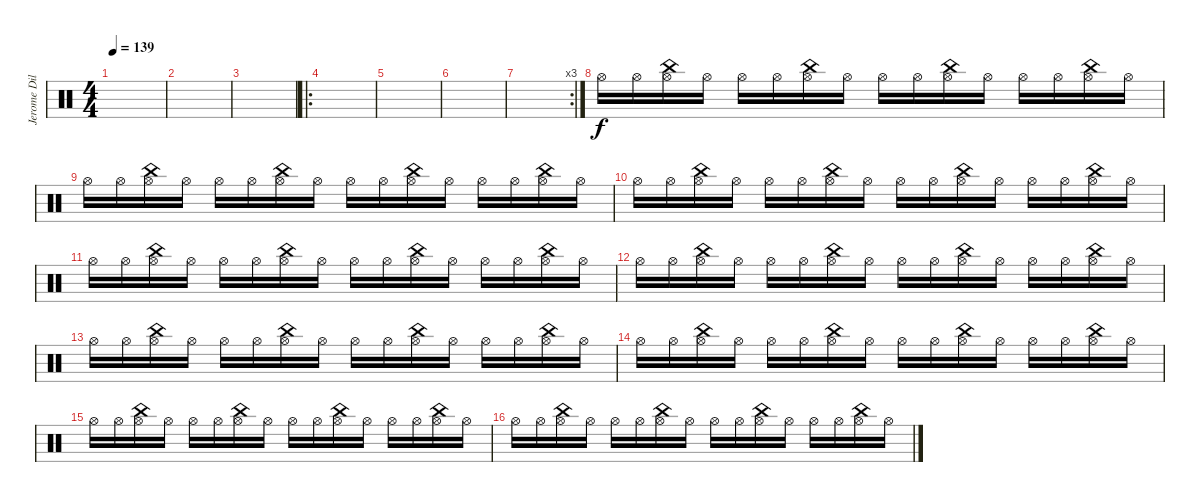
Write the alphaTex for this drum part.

\track ("Jerome Dillon - Batería 2" "Jerome Dil") {instrument percussion}
\staff {score}
\articulation defaults
\ts (4 4)
\tempo 139
\clef neutral
\ks c
|
|
|
\ro
|
|
|
\rc 3
|
"Hi-Hat (open)".16 "Hi-Hat (open)".16 ("Hi-Hat (open)" "China (hit)").16 "Hi-Hat (open)".16 "Hi-Hat (open)".16 "Hi-Hat (open)".16 ("Hi-Hat (open)" "China (hit)").16 "Hi-Hat (open)".16 "Hi-Hat (open)".16 "Hi-Hat (open)".16 ("Hi-Hat (open)" "China (hit)").16 "Hi-Hat (open)".16 "Hi-Hat (open)".16 "Hi-Hat (open)".16 ("Hi-Hat (open)" "China (hit)").16 "Hi-Hat (open)".16 |
"Hi-Hat (open)".16 "Hi-Hat (open)".16 ("Hi-Hat (open)" "China (hit)").16 "Hi-Hat (open)".16 "Hi-Hat (open)".16 "Hi-Hat (open)".16 ("Hi-Hat (open)" "China (hit)").16 "Hi-Hat (open)".16 "Hi-Hat (open)".16 "Hi-Hat (open)".16 ("Hi-Hat (open)" "China (hit)").16 "Hi-Hat (open)".16 "Hi-Hat (open)".16 "Hi-Hat (open)".16 ("Hi-Hat (open)" "China (hit)").16 "Hi-Hat (open)".16 |
"Hi-Hat (open)".16 "Hi-Hat (open)".16 ("Hi-Hat (open)" "China (hit)").16 "Hi-Hat (open)".16 "Hi-Hat (open)".16 "Hi-Hat (open)".16 ("Hi-Hat (open)" "China (hit)").16 "Hi-Hat (open)".16 "Hi-Hat (open)".16 "Hi-Hat (open)".16 ("Hi-Hat (open)" "China (hit)").16 "Hi-Hat (open)".16 "Hi-Hat (open)".16 "Hi-Hat (open)".16 ("Hi-Hat (open)" "China (hit)").16 "Hi-Hat (open)".16 |
"Hi-Hat (open)".16 "Hi-Hat (open)".16 ("Hi-Hat (open)" "China (hit)").16 "Hi-Hat (open)".16 "Hi-Hat (open)".16 "Hi-Hat (open)".16 ("Hi-Hat (open)" "China (hit)").16 "Hi-Hat (open)".16 "Hi-Hat (open)".16 "Hi-Hat (open)".16 ("Hi-Hat (open)" "China (hit)").16 "Hi-Hat (open)".16 "Hi-Hat (open)".16 "Hi-Hat (open)".16 ("Hi-Hat (open)" "China (hit)").16 "Hi-Hat (open)".16 |
"Hi-Hat (open)".16 "Hi-Hat (open)".16 ("Hi-Hat (open)" "China (hit)").16 "Hi-Hat (open)".16 "Hi-Hat (open)".16 "Hi-Hat (open)".16 ("Hi-Hat (open)" "China (hit)").16 "Hi-Hat (open)".16 "Hi-Hat (open)".16 "Hi-Hat (open)".16 ("Hi-Hat (open)" "China (hit)").16 "Hi-Hat (open)".16 "Hi-Hat (open)".16 "Hi-Hat (open)".16 ("Hi-Hat (open)" "China (hit)").16 "Hi-Hat (open)".16 |
"Hi-Hat (open)".16 "Hi-Hat (open)".16 ("Hi-Hat (open)" "China (hit)").16 "Hi-Hat (open)".16 "Hi-Hat (open)".16 "Hi-Hat (open)".16 ("Hi-Hat (open)" "China (hit)").16 "Hi-Hat (open)".16 "Hi-Hat (open)".16 "Hi-Hat (open)".16 ("Hi-Hat (open)" "China (hit)").16 "Hi-Hat (open)".16 "Hi-Hat (open)".16 "Hi-Hat (open)".16 ("Hi-Hat (open)" "China (hit)").16 "Hi-Hat (open)".16 |
"Hi-Hat (open)".16 "Hi-Hat (open)".16 ("Hi-Hat (open)" "China (hit)").16 "Hi-Hat (open)".16 "Hi-Hat (open)".16 "Hi-Hat (open)".16 ("Hi-Hat (open)" "China (hit)").16 "Hi-Hat (open)".16 "Hi-Hat (open)".16 "Hi-Hat (open)".16 ("Hi-Hat (open)" "China (hit)").16 "Hi-Hat (open)".16 "Hi-Hat (open)".16 "Hi-Hat (open)".16 ("Hi-Hat (open)" "China (hit)").16 "Hi-Hat (open)".16 |
"Hi-Hat (open)".16 "Hi-Hat (open)".16 ("Hi-Hat (open)" "China (hit)").16 "Hi-Hat (open)".16 "Hi-Hat (open)".16 "Hi-Hat (open)".16 ("Hi-Hat (open)" "China (hit)").16 "Hi-Hat (open)".16 "Hi-Hat (open)".16 "Hi-Hat (open)".16 ("Hi-Hat (open)" "China (hit)").16 "Hi-Hat (open)".16 "Hi-Hat (open)".16 "Hi-Hat (open)".16 ("Hi-Hat (open)" "China (hit)").16 "Hi-Hat (open)".16 |
"Hi-Hat (open)".16 "Hi-Hat (open)".16 ("Hi-Hat (open)" "China (hit)").16 "Hi-Hat (open)".16 "Hi-Hat (open)".16 "Hi-Hat (open)".16 ("Hi-Hat (open)" "China (hit)").16 "Hi-Hat (open)".16 "Hi-Hat (open)".16 "Hi-Hat (open)".16 ("Hi-Hat (open)" "China (hit)").16 "Hi-Hat (open)".16 "Hi-Hat (open)".16 "Hi-Hat (open)".16 ("Hi-Hat (open)" "China (hit)").16 "Hi-Hat (open)".16
